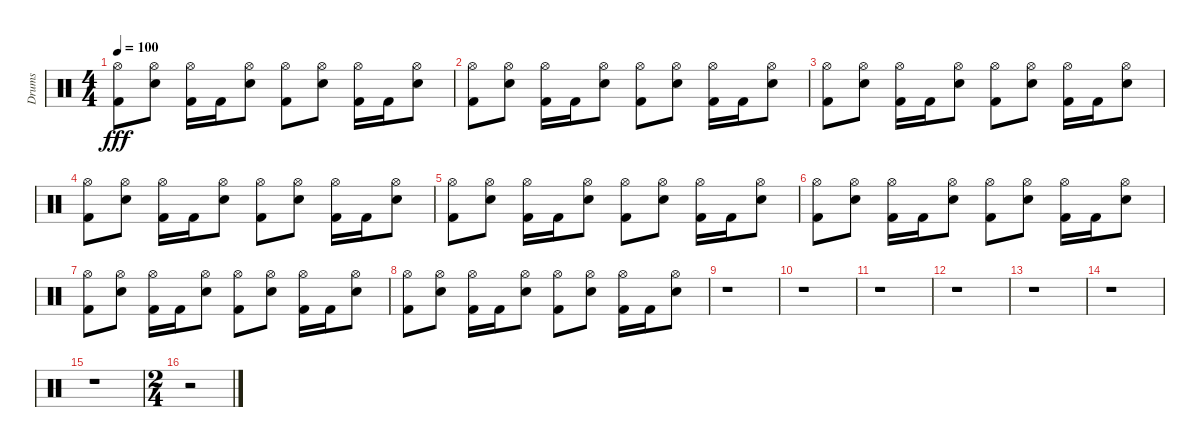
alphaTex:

\track ("Drums" "Drums") {instrument percussion}
\staff {score}
\articulation defaults
\ts (4 4)
\tempo 100
\clef neutral
\ks c
("Kick (hit) 2" "Hi-Hat (open)").8{dy fff} ("Hi-Hat (open)" "Electric Snare (hit)").8 ("Kick (hit) 2" "Hi-Hat (open)").16 "Kick (hit) 2".16 ("Hi-Hat (open)" "Electric Snare (hit)").8 ("Kick (hit) 2" "Hi-Hat (open)").8 ("Hi-Hat (open)" "Electric Snare (hit)").8 ("Hi-Hat (open)" "Kick (hit) 2").16 "Kick (hit) 2".16 ("Hi-Hat (open)" "Electric Snare (hit)").8 |
("Kick (hit) 2" "Hi-Hat (open)").8 ("Hi-Hat (open)" "Electric Snare (hit)").8 ("Kick (hit) 2" "Hi-Hat (open)").16 "Kick (hit) 2".16 ("Hi-Hat (open)" "Electric Snare (hit)").8 ("Kick (hit) 2" "Hi-Hat (open)").8 ("Hi-Hat (open)" "Electric Snare (hit)").8 ("Hi-Hat (open)" "Kick (hit) 2").16 "Kick (hit) 2".16 ("Hi-Hat (open)" "Electric Snare (hit)").8 |
("Kick (hit) 2" "Hi-Hat (open)").8 ("Hi-Hat (open)" "Electric Snare (hit)").8 ("Hi-Hat (open)" "Kick (hit) 2").16 "Kick (hit) 2".16 ("Hi-Hat (open)" "Electric Snare (hit)").8 ("Kick (hit) 2" "Hi-Hat (open)").8 ("Hi-Hat (open)" "Electric Snare (hit)").8 ("Kick (hit) 2" "Hi-Hat (open)").16 "Kick (hit) 2".16 ("Hi-Hat (open)" "Electric Snare (hit)").8 |
("Kick (hit) 2" "Hi-Hat (open)").8 ("Hi-Hat (open)" "Electric Snare (hit)").8 ("Hi-Hat (open)" "Kick (hit) 2").16 "Kick (hit) 2".16 ("Hi-Hat (open)" "Electric Snare (hit)").8 ("Kick (hit) 2" "Hi-Hat (open)").8 ("Hi-Hat (open)" "Electric Snare (hit)").8 ("Kick (hit) 2" "Hi-Hat (open)").16 "Kick (hit) 2".16 ("Hi-Hat (open)" "Electric Snare (hit)").8 |
("Kick (hit) 2" "Hi-Hat (open)").8 ("Hi-Hat (open)" "Electric Snare (hit)").8 ("Hi-Hat (open)" "Kick (hit) 2").16 "Kick (hit) 2".16 ("Hi-Hat (open)" "Electric Snare (hit)").8 ("Kick (hit) 2" "Hi-Hat (open)").8 ("Hi-Hat (open)" "Electric Snare (hit)").8 ("Hi-Hat (open)" "Kick (hit) 2").16 "Kick (hit) 2".16 ("Hi-Hat (open)" "Electric Snare (hit)").8 |
("Kick (hit) 2" "Hi-Hat (open)").8 ("Hi-Hat (open)" "Electric Snare (hit)").8 ("Kick (hit) 2" "Hi-Hat (open)").16 "Kick (hit) 2".16 ("Hi-Hat (open)" "Electric Snare (hit)").8 ("Kick (hit) 2" "Hi-Hat (open)").8 ("Hi-Hat (open)" "Electric Snare (hit)").8 ("Hi-Hat (open)" "Kick (hit) 2").16 "Kick (hit) 2".16 ("Hi-Hat (open)" "Electric Snare (hit)").8 |
("Kick (hit) 2" "Hi-Hat (open)").8 ("Hi-Hat (open)" "Electric Snare (hit)").8 ("Hi-Hat (open)" "Kick (hit) 2").16 "Kick (hit) 2".16 ("Hi-Hat (open)" "Electric Snare (hit)").8 ("Kick (hit) 2" "Hi-Hat (open)").8 ("Hi-Hat (open)" "Electric Snare (hit)").8 ("Kick (hit) 2" "Hi-Hat (open)").16 "Kick (hit) 2".16 ("Hi-Hat (open)" "Electric Snare (hit)").8 |
("Kick (hit) 2" "Hi-Hat (open)").8 ("Hi-Hat (open)" "Electric Snare (hit)").8 ("Hi-Hat (open)" "Kick (hit) 2").16 "Kick (hit) 2".16 ("Hi-Hat (open)" "Electric Snare (hit)").8 ("Kick (hit) 2" "Hi-Hat (open)").8 ("Hi-Hat (open)" "Electric Snare (hit)").8 ("Kick (hit) 2" "Hi-Hat (open)").16 "Kick (hit) 2".16 ("Hi-Hat (open)" "Electric Snare (hit)").8 |
r.1 |
r.1 |
r.1 |
r.1 |
r.1 |
r.1 |
r.1 |
\ts (2 4)
r.2
